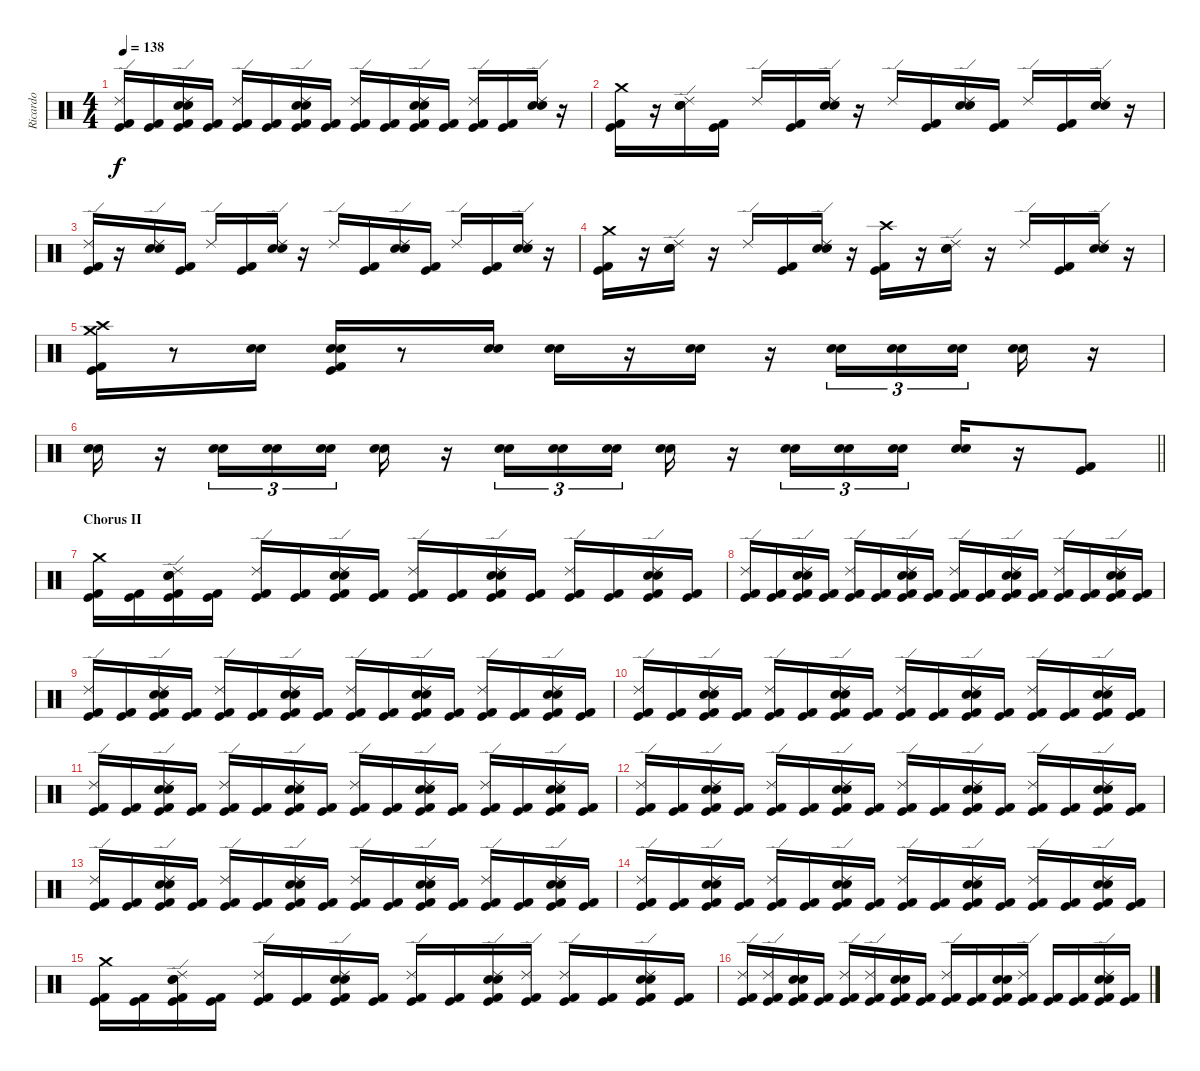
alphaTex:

\track ("Ricardo" "Ricardo") {instrument percussion}
\staff {score}
\articulation defaults
\ts (4 4)
\tempo 138
\clef neutral
\ks c
("Ride (edge) 2" "Kick (hit) 2" "Kick (hit)").16{dy f} ("Kick (hit) 2" "Kick (hit)").16 ("Electric Snare (hit)" "Snare (hit) 2" "Ride (edge) 2" "Kick (hit) 2" "Kick (hit)").16 ("Kick (hit) 2" "Kick (hit)").16 ("Ride (edge) 2" "Kick (hit) 2" "Kick (hit)").16 ("Kick (hit) 2" "Kick (hit)").16 ("Electric Snare (hit)" "Snare (hit) 2" "Ride (edge) 2" "Kick (hit) 2" "Kick (hit)").16 ("Kick (hit) 2" "Kick (hit)").16 ("Ride (edge) 2" "Kick (hit) 2" "Kick (hit)").16 ("Kick (hit) 2" "Kick (hit)").16 ("Electric Snare (hit)" "Snare (hit) 2" "Ride (edge) 2" "Kick (hit) 2" "Kick (hit)").16 ("Kick (hit) 2" "Kick (hit)").16 ("Ride (edge) 2" "Kick (hit) 2" "Kick (hit)").16 ("Kick (hit) 2" "Kick (hit)").16 ("Ride (edge) 2" "Electric Snare (hit)" "Snare (hit) 2").16 r.16 |
("Crash medium (hit)" "Kick (hit) 2" "Kick (hit)").16 r.16 ("Electric Snare (hit)" "Snare (hit) 2" "Ride (edge) 2").16 ("Kick (hit) 2" "Kick (hit)").16 "Ride (edge) 2".16 ("Kick (hit) 2" "Kick (hit)").16 ("Electric Snare (hit)" "Snare (hit) 2" "Ride (edge) 2").16 r.16 "Ride (edge) 2".16 ("Kick (hit) 2" "Kick (hit)").16 ("Electric Snare (hit)" "Snare (hit) 2" "Ride (edge) 2").16 ("Kick (hit) 2" "Kick (hit)").16 "Ride (edge) 2".16 ("Kick (hit) 2" "Kick (hit)").16 ("Electric Snare (hit)" "Snare (hit) 2" "Ride (edge) 2").16 r.16 |
("Ride (edge) 2" "Kick (hit) 2" "Kick (hit)").16 r.16 ("Ride (edge) 2" "Electric Snare (hit)" "Snare (hit) 2").16 ("Kick (hit) 2" "Kick (hit)").16 "Ride (edge) 2".16 ("Kick (hit) 2" "Kick (hit)").16 ("Electric Snare (hit)" "Snare (hit) 2" "Ride (edge) 2").16 r.16 "Ride (edge) 2".16 ("Kick (hit) 2" "Kick (hit)").16 ("Electric Snare (hit)" "Snare (hit) 2" "Ride (edge) 2").16 ("Kick (hit) 2" "Kick (hit)").16 "Ride (edge) 2".16 ("Kick (hit) 2" "Kick (hit)").16 ("Electric Snare (hit)" "Snare (hit) 2" "Ride (edge) 2").16 r.16 |
("Kick (hit) 2" "Kick (hit)" "Crash medium (hit)").16 r.16 ("Electric Snare (hit)" "Snare (hit) 2" "Ride (edge) 2").16 r.16 "Ride (edge) 2".16 ("Kick (hit) 2" "Kick (hit)").16 ("Electric Snare (hit)" "Snare (hit) 2" "Ride (edge) 2").16 r.16 ("Crash high (hit)" "Kick (hit) 2" "Kick (hit)").16 r.16 ("Ride (edge) 2" "Electric Snare (hit)" "Snare (hit) 2").16 r.16 "Ride (edge) 2".16 ("Kick (hit)" "Kick (hit) 2").16 ("Ride (edge) 2" "Electric Snare (hit)" "Snare (hit) 2").16 r.16 |
("Crash high (hit)" "Crash medium (hit)" "Kick (hit) 2" "Kick (hit)").16 r.8 ("Electric Snare (hit)" "Snare (hit) 2").16 ("Electric Snare (hit)" "Snare (hit) 2" "Kick (hit) 2" "Kick (hit)").16 r.8 ("Electric Snare (hit)" "Snare (hit) 2").16 ("Electric Snare (hit)" "Snare (hit) 2").16 r.16 ("Electric Snare (hit)" "Snare (hit) 2").16 r.16 ("Electric Snare (hit)" "Snare (hit) 2").16{tu (3 2)} ("Electric Snare (hit)" "Snare (hit) 2").16{tu (3 2)} ("Electric Snare (hit)" "Snare (hit) 2").16{tu (3 2)} ("Electric Snare (hit)" "Snare (hit) 2").16 r.16 |
\barLineRight lightlight
("Electric Snare (hit)" "Snare (hit) 2").16 r.16 ("Electric Snare (hit)" "Snare (hit) 2").16{tu (3 2)} ("Electric Snare (hit)" "Snare (hit) 2").16{tu (3 2)} ("Electric Snare (hit)" "Snare (hit) 2").16{tu (3 2)} ("Electric Snare (hit)" "Snare (hit) 2").16 r.16 ("Electric Snare (hit)" "Snare (hit) 2").16{tu (3 2)} ("Electric Snare (hit)" "Snare (hit) 2").16{tu (3 2)} ("Electric Snare (hit)" "Snare (hit) 2").16{tu (3 2)} ("Electric Snare (hit)" "Snare (hit) 2").16 r.16 ("Electric Snare (hit)" "Snare (hit) 2").16{tu (3 2)} ("Electric Snare (hit)" "Snare (hit) 2").16{tu (3 2)} ("Electric Snare (hit)" "Snare (hit) 2").16{tu (3 2)} ("Electric Snare (hit)" "Snare (hit) 2").16 r.16 ("Kick (hit) 2" "Kick (hit)").8 |
\section ("" "Chorus II")
("Crash medium (hit)" "Kick (hit) 2" "Kick (hit)").16 ("Kick (hit) 2" "Kick (hit)").16 ("Electric Snare (hit)" "Snare (hit) 2" "Ride (edge) 2" "Kick (hit) 2" "Kick (hit)").16 ("Kick (hit) 2" "Kick (hit)").16 ("Ride (edge) 2" "Kick (hit) 2" "Kick (hit)").16 ("Kick (hit) 2" "Kick (hit)").16 ("Electric Snare (hit)" "Snare (hit) 2" "Ride (edge) 2" "Kick (hit) 2" "Kick (hit)").16 ("Kick (hit) 2" "Kick (hit)").16 ("Ride (edge) 2" "Kick (hit) 2" "Kick (hit)").16 ("Kick (hit) 2" "Kick (hit)").16 ("Electric Snare (hit)" "Snare (hit) 2" "Ride (edge) 2" "Kick (hit) 2" "Kick (hit)").16 ("Kick (hit) 2" "Kick (hit)").16 ("Ride (edge) 2" "Kick (hit) 2" "Kick (hit)").16 ("Kick (hit) 2" "Kick (hit)").16 ("Electric Snare (hit)" "Snare (hit) 2" "Ride (edge) 2" "Kick (hit) 2" "Kick (hit)").16 ("Kick (hit) 2" "Kick (hit)").16 |
("Ride (edge) 2" "Kick (hit) 2" "Kick (hit)").16 ("Kick (hit) 2" "Kick (hit)").16 ("Electric Snare (hit)" "Snare (hit) 2" "Ride (edge) 2" "Kick (hit) 2" "Kick (hit)").16 ("Kick (hit) 2" "Kick (hit)").16 ("Ride (edge) 2" "Kick (hit) 2" "Kick (hit)").16 ("Kick (hit) 2" "Kick (hit)").16 ("Electric Snare (hit)" "Snare (hit) 2" "Ride (edge) 2" "Kick (hit) 2" "Kick (hit)").16 ("Kick (hit) 2" "Kick (hit)").16 ("Ride (edge) 2" "Kick (hit) 2" "Kick (hit)").16 ("Kick (hit) 2" "Kick (hit)").16 ("Electric Snare (hit)" "Snare (hit) 2" "Ride (edge) 2" "Kick (hit) 2" "Kick (hit)").16 ("Kick (hit) 2" "Kick (hit)").16 ("Ride (edge) 2" "Kick (hit) 2" "Kick (hit)").16 ("Kick (hit) 2" "Kick (hit)").16 ("Electric Snare (hit)" "Snare (hit) 2" "Ride (edge) 2" "Kick (hit) 2" "Kick (hit)").16 ("Kick (hit) 2" "Kick (hit)").16 |
("Ride (edge) 2" "Kick (hit) 2" "Kick (hit)").16 ("Kick (hit) 2" "Kick (hit)").16 ("Electric Snare (hit)" "Snare (hit) 2" "Ride (edge) 2" "Kick (hit) 2" "Kick (hit)").16 ("Kick (hit) 2" "Kick (hit)").16 ("Ride (edge) 2" "Kick (hit) 2" "Kick (hit)").16 ("Kick (hit) 2" "Kick (hit)").16 ("Electric Snare (hit)" "Snare (hit) 2" "Ride (edge) 2" "Kick (hit) 2" "Kick (hit)").16 ("Kick (hit) 2" "Kick (hit)").16 ("Ride (edge) 2" "Kick (hit) 2" "Kick (hit)").16 ("Kick (hit) 2" "Kick (hit)").16 ("Electric Snare (hit)" "Snare (hit) 2" "Ride (edge) 2" "Kick (hit) 2" "Kick (hit)").16 ("Kick (hit) 2" "Kick (hit)").16 ("Ride (edge) 2" "Kick (hit) 2" "Kick (hit)").16 ("Kick (hit) 2" "Kick (hit)").16 ("Electric Snare (hit)" "Snare (hit) 2" "Ride (edge) 2" "Kick (hit) 2" "Kick (hit)").16 ("Kick (hit) 2" "Kick (hit)").16 |
("Ride (edge) 2" "Kick (hit) 2" "Kick (hit)").16 ("Kick (hit) 2" "Kick (hit)").16 ("Electric Snare (hit)" "Snare (hit) 2" "Ride (edge) 2" "Kick (hit) 2" "Kick (hit)").16 ("Kick (hit) 2" "Kick (hit)").16 ("Ride (edge) 2" "Kick (hit) 2" "Kick (hit)").16 ("Kick (hit) 2" "Kick (hit)").16 ("Electric Snare (hit)" "Snare (hit) 2" "Ride (edge) 2" "Kick (hit) 2" "Kick (hit)").16 ("Kick (hit) 2" "Kick (hit)").16 ("Ride (edge) 2" "Kick (hit) 2" "Kick (hit)").16 ("Kick (hit) 2" "Kick (hit)").16 ("Electric Snare (hit)" "Snare (hit) 2" "Ride (edge) 2" "Kick (hit) 2" "Kick (hit)").16 ("Kick (hit) 2" "Kick (hit)").16 ("Ride (edge) 2" "Kick (hit) 2" "Kick (hit)").16 ("Kick (hit) 2" "Kick (hit)").16 ("Electric Snare (hit)" "Snare (hit) 2" "Ride (edge) 2" "Kick (hit) 2" "Kick (hit)").16 ("Kick (hit) 2" "Kick (hit)").16 |
("Ride (edge) 2" "Kick (hit) 2" "Kick (hit)").16 ("Kick (hit) 2" "Kick (hit)").16 ("Electric Snare (hit)" "Snare (hit) 2" "Ride (edge) 2" "Kick (hit) 2" "Kick (hit)").16 ("Kick (hit) 2" "Kick (hit)").16 ("Ride (edge) 2" "Kick (hit) 2" "Kick (hit)").16 ("Kick (hit) 2" "Kick (hit)").16 ("Electric Snare (hit)" "Snare (hit) 2" "Ride (edge) 2" "Kick (hit) 2" "Kick (hit)").16 ("Kick (hit) 2" "Kick (hit)").16 ("Ride (edge) 2" "Kick (hit) 2" "Kick (hit)").16 ("Kick (hit) 2" "Kick (hit)").16 ("Electric Snare (hit)" "Snare (hit) 2" "Ride (edge) 2" "Kick (hit) 2" "Kick (hit)").16 ("Kick (hit) 2" "Kick (hit)").16 ("Ride (edge) 2" "Kick (hit) 2" "Kick (hit)").16 ("Kick (hit) 2" "Kick (hit)").16 ("Electric Snare (hit)" "Snare (hit) 2" "Ride (edge) 2" "Kick (hit) 2" "Kick (hit)").16 ("Kick (hit) 2" "Kick (hit)").16 |
("Ride (edge) 2" "Kick (hit) 2" "Kick (hit)").16 ("Kick (hit) 2" "Kick (hit)").16 ("Electric Snare (hit)" "Snare (hit) 2" "Ride (edge) 2" "Kick (hit) 2" "Kick (hit)").16 ("Kick (hit) 2" "Kick (hit)").16 ("Ride (edge) 2" "Kick (hit) 2" "Kick (hit)").16 ("Kick (hit) 2" "Kick (hit)").16 ("Electric Snare (hit)" "Snare (hit) 2" "Ride (edge) 2" "Kick (hit) 2" "Kick (hit)").16 ("Kick (hit) 2" "Kick (hit)").16 ("Ride (edge) 2" "Kick (hit) 2" "Kick (hit)").16 ("Kick (hit) 2" "Kick (hit)").16 ("Electric Snare (hit)" "Snare (hit) 2" "Ride (edge) 2" "Kick (hit) 2" "Kick (hit)").16 ("Kick (hit) 2" "Kick (hit)").16 ("Ride (edge) 2" "Kick (hit) 2" "Kick (hit)").16 ("Kick (hit) 2" "Kick (hit)").16 ("Electric Snare (hit)" "Snare (hit) 2" "Ride (edge) 2" "Kick (hit) 2" "Kick (hit)").16 ("Kick (hit) 2" "Kick (hit)").16 |
("Ride (edge) 2" "Kick (hit) 2" "Kick (hit)").16 ("Kick (hit) 2" "Kick (hit)").16 ("Electric Snare (hit)" "Snare (hit) 2" "Ride (edge) 2" "Kick (hit) 2" "Kick (hit)").16 ("Kick (hit) 2" "Kick (hit)").16 ("Ride (edge) 2" "Kick (hit) 2" "Kick (hit)").16 ("Kick (hit) 2" "Kick (hit)").16 ("Electric Snare (hit)" "Snare (hit) 2" "Ride (edge) 2" "Kick (hit) 2" "Kick (hit)").16 ("Kick (hit) 2" "Kick (hit)").16 ("Ride (edge) 2" "Kick (hit) 2" "Kick (hit)").16 ("Kick (hit) 2" "Kick (hit)").16 ("Electric Snare (hit)" "Snare (hit) 2" "Ride (edge) 2" "Kick (hit) 2" "Kick (hit)").16 ("Kick (hit) 2" "Kick (hit)").16 ("Ride (edge) 2" "Kick (hit) 2" "Kick (hit)").16 ("Kick (hit) 2" "Kick (hit)").16 ("Electric Snare (hit)" "Snare (hit) 2" "Ride (edge) 2" "Kick (hit) 2" "Kick (hit)").16 ("Kick (hit) 2" "Kick (hit)").16 |
("Ride (edge) 2" "Kick (hit) 2" "Kick (hit)").16 ("Kick (hit) 2" "Kick (hit)").16 ("Electric Snare (hit)" "Snare (hit) 2" "Ride (edge) 2" "Kick (hit) 2" "Kick (hit)").16 ("Kick (hit) 2" "Kick (hit)").16 ("Ride (edge) 2" "Kick (hit) 2" "Kick (hit)").16 ("Kick (hit) 2" "Kick (hit)").16 ("Electric Snare (hit)" "Snare (hit) 2" "Ride (edge) 2" "Kick (hit) 2" "Kick (hit)").16 ("Kick (hit) 2" "Kick (hit)").16 ("Ride (edge) 2" "Kick (hit) 2" "Kick (hit)").16 ("Kick (hit) 2" "Kick (hit)").16 ("Electric Snare (hit)" "Snare (hit) 2" "Ride (edge) 2" "Kick (hit) 2" "Kick (hit)").16 ("Kick (hit) 2" "Kick (hit)").16 ("Ride (edge) 2" "Kick (hit) 2" "Kick (hit)").16 ("Kick (hit) 2" "Kick (hit)").16 ("Electric Snare (hit)" "Snare (hit) 2" "Ride (edge) 2" "Kick (hit) 2" "Kick (hit)").16 ("Kick (hit) 2" "Kick (hit)").16 |
("Crash medium (hit)" "Kick (hit) 2" "Kick (hit)").16 ("Kick (hit) 2" "Kick (hit)").16 ("Electric Snare (hit)" "Snare (hit) 2" "Ride (edge) 2" "Kick (hit) 2" "Kick (hit)").16 ("Kick (hit) 2" "Kick (hit)").16 ("Ride (edge) 2" "Kick (hit) 2" "Kick (hit)").16 ("Kick (hit) 2" "Kick (hit)").16 ("Electric Snare (hit)" "Snare (hit) 2" "Ride (edge) 2" "Kick (hit) 2" "Kick (hit)").16 ("Kick (hit) 2" "Kick (hit)").16 ("Ride (edge) 2" "Kick (hit) 2" "Kick (hit)").16 ("Kick (hit) 2" "Kick (hit)").16 ("Electric Snare (hit)" "Snare (hit) 2" "Ride (edge) 2" "Kick (hit) 2" "Kick (hit)").16 ("Ride (edge) 2" "Kick (hit) 2" "Kick (hit)").16 ("Ride (edge) 2" "Kick (hit) 2" "Kick (hit)").16 ("Kick (hit) 2" "Kick (hit)").16 ("Electric Snare (hit)" "Snare (hit) 2" "Ride (edge) 2" "Kick (hit) 2" "Kick (hit)").16 ("Kick (hit) 2" "Kick (hit)").16 |
("Ride (edge) 2" "Kick (hit) 2" "Kick (hit)").16 ("Ride (edge) 2" "Kick (hit) 2" "Kick (hit)").16 ("Electric Snare (hit)" "Snare (hit) 2" "Kick (hit) 2" "Kick (hit)").16 ("Kick (hit) 2" "Kick (hit)").16 ("Ride (edge) 2" "Kick (hit) 2" "Kick (hit)").16 ("Ride (edge) 2" "Kick (hit) 2" "Kick (hit)").16 ("Electric Snare (hit)" "Snare (hit) 2" "Kick (hit) 2" "Kick (hit)").16 ("Kick (hit) 2" "Kick (hit)").16 ("Ride (edge) 2" "Kick (hit) 2" "Kick (hit)").16 ("Kick (hit) 2" "Kick (hit)").16 ("Electric Snare (hit)" "Snare (hit) 2" "Kick (hit) 2" "Kick (hit)").16 ("Ride (edge) 2" "Kick (hit) 2" "Kick (hit)").16 ("Kick (hit) 2" "Kick (hit)").16 ("Kick (hit) 2" "Kick (hit)").16 ("Electric Snare (hit)" "Snare (hit) 2" "Ride (edge) 2" "Kick (hit) 2" "Kick (hit)").16 ("Kick (hit) 2" "Kick (hit)").16
